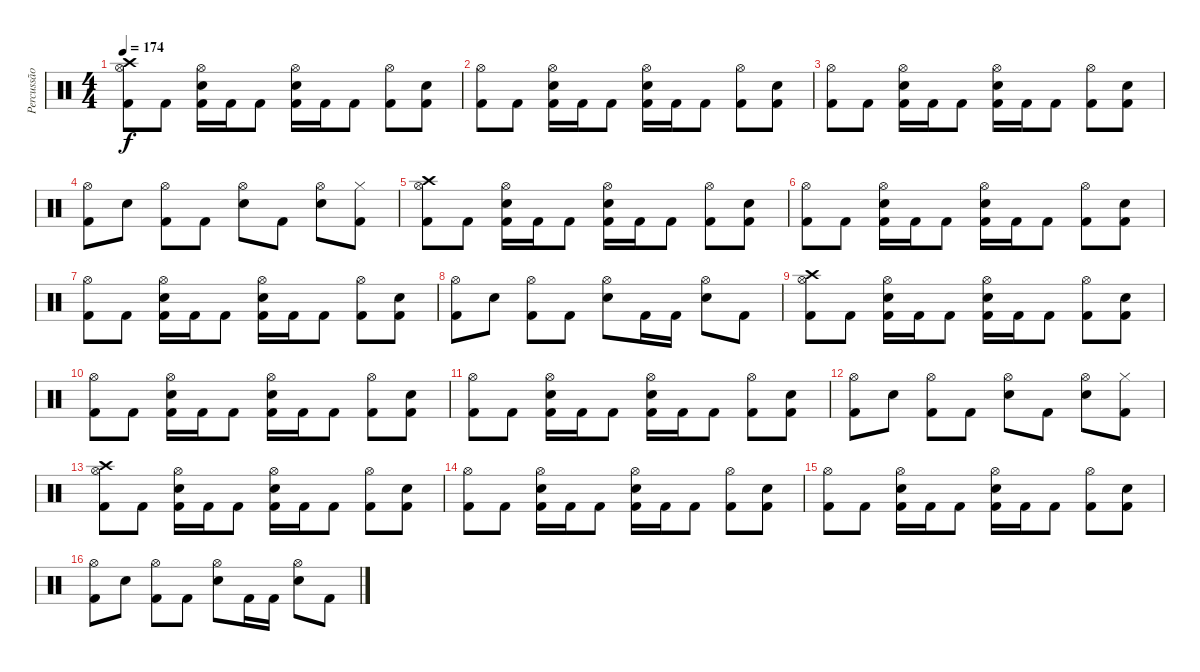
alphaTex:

\track ("Percussão" "Percussão") {instrument percussion}
\staff {score}
\articulation defaults
\ts (4 4)
\tempo 174
\clef neutral
\ks c
("Crash high (hit)" "Hi-Hat (open)" "Kick (hit) 2").8{dy f} "Kick (hit) 2".8 ("Hi-Hat (open)" "Electric Snare (hit)" "Kick (hit) 2").16 "Kick (hit) 2".16 "Kick (hit) 2".8 ("Hi-Hat (open)" "Electric Snare (hit)" "Kick (hit) 2").16 "Kick (hit) 2".16 "Kick (hit) 2".8 ("Hi-Hat (open)" "Kick (hit) 2").8 ("Electric Snare (hit)" "Kick (hit) 2").8 |
("Hi-Hat (open)" "Kick (hit) 2").8 "Kick (hit) 2".8 ("Hi-Hat (open)" "Electric Snare (hit)" "Kick (hit) 2").16 "Kick (hit) 2".16 "Kick (hit) 2".8 ("Hi-Hat (open)" "Electric Snare (hit)" "Kick (hit) 2").16 "Kick (hit) 2".16 "Kick (hit) 2".8 ("Hi-Hat (open)" "Kick (hit) 2").8 ("Electric Snare (hit)" "Kick (hit) 2").8 |
("Hi-Hat (open)" "Kick (hit) 2").8 "Kick (hit) 2".8 ("Hi-Hat (open)" "Electric Snare (hit)" "Kick (hit) 2").16 "Kick (hit) 2".16 "Kick (hit) 2".8 ("Hi-Hat (open)" "Electric Snare (hit)" "Kick (hit) 2").16 "Kick (hit) 2".16 "Kick (hit) 2".8 ("Hi-Hat (open)" "Kick (hit) 2").8 ("Electric Snare (hit)" "Kick (hit) 2").8 |
("Hi-Hat (open)" "Kick (hit) 2").8 "Electric Snare (hit)".8 ("Hi-Hat (open)" "Kick (hit) 2").8 "Kick (hit) 2".8 ("Hi-Hat (open)" "Electric Snare (hit)").8 "Kick (hit) 2".8 ("Hi-Hat (open)" "Electric Snare (hit)").8 ("Hi-Hat (closed)" "Kick (hit) 2").8 |
("Crash high (hit)" "Hi-Hat (open)" "Kick (hit) 2").8 "Kick (hit) 2".8 ("Hi-Hat (open)" "Electric Snare (hit)" "Kick (hit) 2").16 "Kick (hit) 2".16 "Kick (hit) 2".8 ("Hi-Hat (open)" "Electric Snare (hit)" "Kick (hit) 2").16 "Kick (hit) 2".16 "Kick (hit) 2".8 ("Hi-Hat (open)" "Kick (hit) 2").8 ("Electric Snare (hit)" "Kick (hit) 2").8 |
("Hi-Hat (open)" "Kick (hit) 2").8 "Kick (hit) 2".8 ("Hi-Hat (open)" "Electric Snare (hit)" "Kick (hit) 2").16 "Kick (hit) 2".16 "Kick (hit) 2".8 ("Hi-Hat (open)" "Electric Snare (hit)" "Kick (hit) 2").16 "Kick (hit) 2".16 "Kick (hit) 2".8 ("Hi-Hat (open)" "Kick (hit) 2").8 ("Electric Snare (hit)" "Kick (hit) 2").8 |
("Hi-Hat (open)" "Kick (hit) 2").8 "Kick (hit) 2".8 ("Hi-Hat (open)" "Electric Snare (hit)" "Kick (hit) 2").16 "Kick (hit) 2".16 "Kick (hit) 2".8 ("Hi-Hat (open)" "Electric Snare (hit)" "Kick (hit) 2").16 "Kick (hit) 2".16 "Kick (hit) 2".8 ("Hi-Hat (open)" "Kick (hit) 2").8 ("Electric Snare (hit)" "Kick (hit) 2").8 |
("Hi-Hat (open)" "Kick (hit) 2").8 "Electric Snare (hit)".8 ("Hi-Hat (open)" "Kick (hit) 2").8 "Kick (hit) 2".8 ("Hi-Hat (open)" "Electric Snare (hit)").8 "Kick (hit) 2".16 "Kick (hit) 2".16 ("Hi-Hat (open)" "Electric Snare (hit)").8 "Kick (hit) 2".8 |
("Crash high (hit)" "Hi-Hat (open)" "Kick (hit) 2").8 "Kick (hit) 2".8 ("Hi-Hat (open)" "Electric Snare (hit)" "Kick (hit) 2").16 "Kick (hit) 2".16 "Kick (hit) 2".8 ("Hi-Hat (open)" "Electric Snare (hit)" "Kick (hit) 2").16 "Kick (hit) 2".16 "Kick (hit) 2".8 ("Hi-Hat (open)" "Kick (hit) 2").8 ("Electric Snare (hit)" "Kick (hit) 2").8 |
("Hi-Hat (open)" "Kick (hit) 2").8 "Kick (hit) 2".8 ("Hi-Hat (open)" "Electric Snare (hit)" "Kick (hit) 2").16 "Kick (hit) 2".16 "Kick (hit) 2".8 ("Hi-Hat (open)" "Electric Snare (hit)" "Kick (hit) 2").16 "Kick (hit) 2".16 "Kick (hit) 2".8 ("Hi-Hat (open)" "Kick (hit) 2").8 ("Electric Snare (hit)" "Kick (hit) 2").8 |
("Hi-Hat (open)" "Kick (hit) 2").8 "Kick (hit) 2".8 ("Hi-Hat (open)" "Electric Snare (hit)" "Kick (hit) 2").16 "Kick (hit) 2".16 "Kick (hit) 2".8 ("Hi-Hat (open)" "Electric Snare (hit)" "Kick (hit) 2").16 "Kick (hit) 2".16 "Kick (hit) 2".8 ("Hi-Hat (open)" "Kick (hit) 2").8 ("Electric Snare (hit)" "Kick (hit) 2").8 |
("Hi-Hat (open)" "Kick (hit) 2").8 "Electric Snare (hit)".8 ("Hi-Hat (open)" "Kick (hit) 2").8 "Kick (hit) 2".8 ("Hi-Hat (open)" "Electric Snare (hit)").8 "Kick (hit) 2".8 ("Hi-Hat (open)" "Electric Snare (hit)").8 ("Hi-Hat (closed)" "Kick (hit) 2").8 |
("Crash high (hit)" "Hi-Hat (open)" "Kick (hit) 2").8 "Kick (hit) 2".8 ("Hi-Hat (open)" "Electric Snare (hit)" "Kick (hit) 2").16 "Kick (hit) 2".16 "Kick (hit) 2".8 ("Hi-Hat (open)" "Electric Snare (hit)" "Kick (hit) 2").16 "Kick (hit) 2".16 "Kick (hit) 2".8 ("Hi-Hat (open)" "Kick (hit) 2").8 ("Electric Snare (hit)" "Kick (hit) 2").8 |
("Hi-Hat (open)" "Kick (hit) 2").8 "Kick (hit) 2".8 ("Hi-Hat (open)" "Electric Snare (hit)" "Kick (hit) 2").16 "Kick (hit) 2".16 "Kick (hit) 2".8 ("Hi-Hat (open)" "Electric Snare (hit)" "Kick (hit) 2").16 "Kick (hit) 2".16 "Kick (hit) 2".8 ("Hi-Hat (open)" "Kick (hit) 2").8 ("Electric Snare (hit)" "Kick (hit) 2").8 |
("Hi-Hat (open)" "Kick (hit) 2").8 "Kick (hit) 2".8 ("Hi-Hat (open)" "Electric Snare (hit)" "Kick (hit) 2").16 "Kick (hit) 2".16 "Kick (hit) 2".8 ("Hi-Hat (open)" "Electric Snare (hit)" "Kick (hit) 2").16 "Kick (hit) 2".16 "Kick (hit) 2".8 ("Hi-Hat (open)" "Kick (hit) 2").8 ("Electric Snare (hit)" "Kick (hit) 2").8 |
("Hi-Hat (open)" "Kick (hit) 2").8 "Electric Snare (hit)".8 ("Hi-Hat (open)" "Kick (hit) 2").8 "Kick (hit) 2".8 ("Hi-Hat (open)" "Electric Snare (hit)").8 "Kick (hit) 2".16 "Kick (hit) 2".16 ("Hi-Hat (open)" "Electric Snare (hit)").8 "Kick (hit) 2".8
